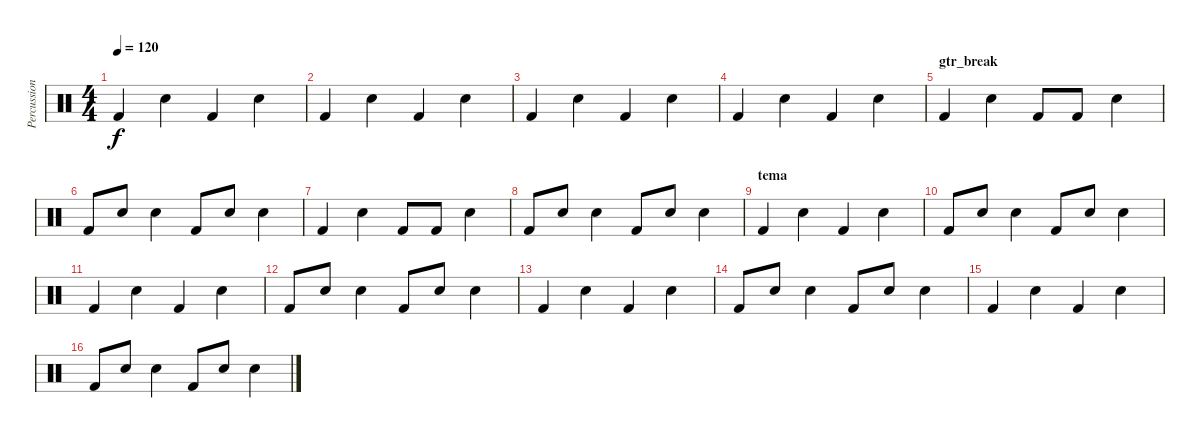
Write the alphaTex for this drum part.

\track ("Percussion" "Percussion") {instrument percussion}
\staff {score}
\articulation defaults
\ts (4 4)
\tempo 120
\clef neutral
\ks c "Kick (hit) 2".4{dy f} "Snare (hit) 2".4 "Kick (hit) 2".4 "Snare (hit) 2".4
|
"Kick (hit) 2".4 "Snare (hit) 2".4 "Kick (hit) 2".4 "Snare (hit) 2".4 |
"Kick (hit) 2".4 "Snare (hit) 2".4 "Kick (hit) 2".4 "Snare (hit) 2".4 |
"Kick (hit) 2".4 "Snare (hit) 2".4 "Kick (hit) 2".4 "Snare (hit) 2".4 |
\section ("" "gtr_break")
"Kick (hit) 2".4 "Snare (hit) 2".4 "Kick (hit) 2".8 "Kick (hit) 2".8 "Snare (hit) 2".4 |
"Kick (hit) 2".8 "Snare (hit) 2".8 "Snare (hit) 2".4 "Kick (hit) 2".8 "Snare (hit) 2".8 "Snare (hit) 2".4 |
"Kick (hit) 2".4 "Snare (hit) 2".4 "Kick (hit) 2".8 "Kick (hit) 2".8 "Snare (hit) 2".4 |
"Kick (hit) 2".8 "Snare (hit) 2".8 "Snare (hit) 2".4 "Kick (hit) 2".8 "Snare (hit) 2".8 "Snare (hit) 2".4 |
\section ("" "tema")
"Kick (hit) 2".4 "Snare (hit) 2".4 "Kick (hit) 2".4 "Snare (hit) 2".4 |
"Kick (hit) 2".8 "Snare (hit) 2".8 "Snare (hit) 2".4 "Kick (hit) 2".8 "Snare (hit) 2".8 "Snare (hit) 2".4 |
"Kick (hit) 2".4 "Snare (hit) 2".4 "Kick (hit) 2".4 "Snare (hit) 2".4 |
"Kick (hit) 2".8 "Snare (hit) 2".8 "Snare (hit) 2".4 "Kick (hit) 2".8 "Snare (hit) 2".8 "Snare (hit) 2".4 |
"Kick (hit) 2".4 "Snare (hit) 2".4 "Kick (hit) 2".4 "Snare (hit) 2".4 |
"Kick (hit) 2".8 "Snare (hit) 2".8 "Snare (hit) 2".4 "Kick (hit) 2".8 "Snare (hit) 2".8 "Snare (hit) 2".4 |
"Kick (hit) 2".4 "Snare (hit) 2".4 "Kick (hit) 2".4 "Snare (hit) 2".4 |
"Kick (hit) 2".8 "Snare (hit) 2".8 "Snare (hit) 2".4 "Kick (hit) 2".8 "Snare (hit) 2".8 "Snare (hit) 2".4
